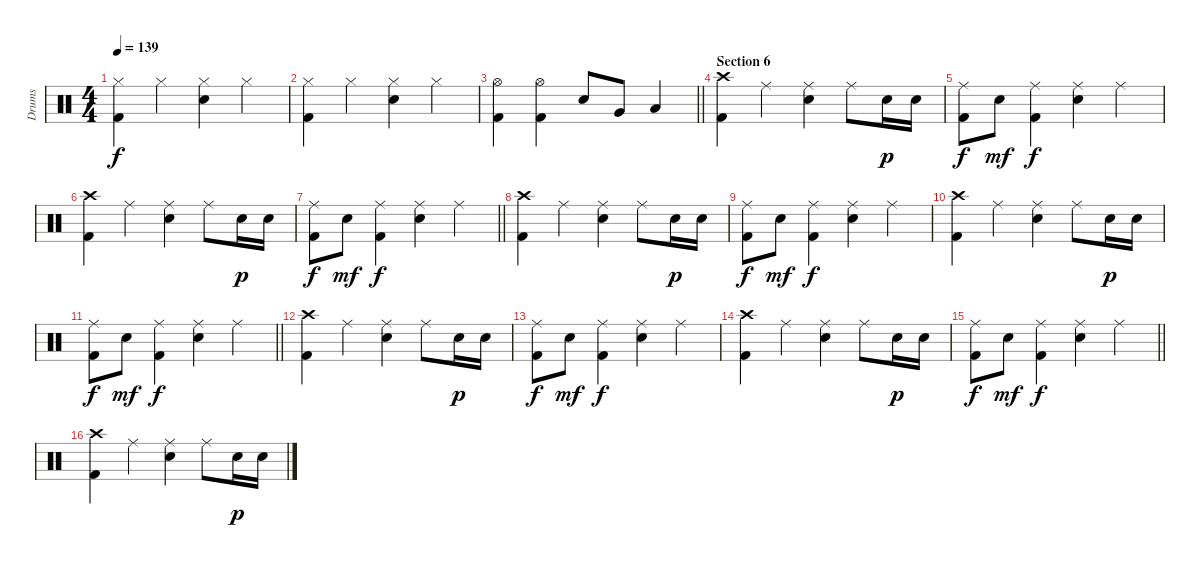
\track ("Drums" "Drums") {instrument percussion}
\staff {score}
\articulation defaults
\ts (4 4)
\tempo 139
\clef neutral
\ks c
("Hi-Hat (closed)" "Kick (hit) 2").4{dy f} "Hi-Hat (closed)".4 ("Hi-Hat (closed)" "Electric Snare (hit)").4 "Hi-Hat (closed)".4 |
("Hi-Hat (closed)" "Kick (hit) 2").4 "Hi-Hat (closed)".4 ("Hi-Hat (closed)" "Electric Snare (hit)").4 "Hi-Hat (closed)".4 |
\barLineRight lightlight
("Hi-Hat (open)" "Kick (hit) 2").4 ("Hi-Hat (open)" "Kick (hit) 2").4 "Electric Snare (hit)".8 "Very Low Tom (hit)".8 "Low Floor Tom (hit)".4 |
\section ("" "Section 6")
("Crash high (hit)" "Kick (hit) 2").4 "Ride (middle)".4 ("Ride (middle)" "Electric Snare (hit)").4 "Ride (middle)".8 "Electric Snare (hit)".16{dy p} "Electric Snare (hit)".16 |
("Ride (middle)" "Kick (hit) 2").8{dy f} "Electric Snare (hit)".8{dy mf} ("Ride (middle)" "Kick (hit) 2").4{dy f} ("Ride (middle)" "Electric Snare (hit)").4 "Ride (middle)".4 |
("Crash high (hit)" "Kick (hit) 2").4 "Ride (middle)".4 ("Ride (middle)" "Electric Snare (hit)").4 "Ride (middle)".8 "Electric Snare (hit)".16{dy p} "Electric Snare (hit)".16 |
\barLineRight lightlight
("Ride (middle)" "Kick (hit) 2").8{dy f} "Electric Snare (hit)".8{dy mf} ("Ride (middle)" "Kick (hit) 2").4{dy f} ("Ride (middle)" "Electric Snare (hit)").4 "Ride (middle)".4 |
("Crash high (hit)" "Kick (hit) 2").4 "Ride (middle)".4 ("Ride (middle)" "Electric Snare (hit)").4 "Ride (middle)".8 "Electric Snare (hit)".16{dy p} "Electric Snare (hit)".16 |
("Ride (middle)" "Kick (hit) 2").8{dy f} "Electric Snare (hit)".8{dy mf} ("Ride (middle)" "Kick (hit) 2").4{dy f} ("Ride (middle)" "Electric Snare (hit)").4 "Ride (middle)".4 |
("Crash high (hit)" "Kick (hit) 2").4 "Ride (middle)".4 ("Ride (middle)" "Electric Snare (hit)").4 "Ride (middle)".8 "Electric Snare (hit)".16{dy p} "Electric Snare (hit)".16 |
\barLineRight lightlight
("Ride (middle)" "Kick (hit) 2").8{dy f} "Electric Snare (hit)".8{dy mf} ("Ride (middle)" "Kick (hit) 2").4{dy f} ("Ride (middle)" "Electric Snare (hit)").4 "Ride (middle)".4 |
("Crash high (hit)" "Kick (hit) 2").4 "Ride (middle)".4 ("Ride (middle)" "Electric Snare (hit)").4 "Ride (middle)".8 "Electric Snare (hit)".16{dy p} "Electric Snare (hit)".16 |
("Ride (middle)" "Kick (hit) 2").8{dy f} "Electric Snare (hit)".8{dy mf} ("Ride (middle)" "Kick (hit) 2").4{dy f} ("Ride (middle)" "Electric Snare (hit)").4 "Ride (middle)".4 |
("Crash high (hit)" "Kick (hit) 2").4 "Ride (middle)".4 ("Ride (middle)" "Electric Snare (hit)").4 "Ride (middle)".8 "Electric Snare (hit)".16{dy p} "Electric Snare (hit)".16 |
\barLineRight lightlight
("Ride (middle)" "Kick (hit) 2").8{dy f} "Electric Snare (hit)".8{dy mf} ("Ride (middle)" "Kick (hit) 2").4{dy f} ("Ride (middle)" "Electric Snare (hit)").4 "Ride (middle)".4 |
("Crash high (hit)" "Kick (hit) 2").4 "Ride (middle)".4 ("Ride (middle)" "Electric Snare (hit)").4 "Ride (middle)".8 "Electric Snare (hit)".16{dy p} "Electric Snare (hit)".16
